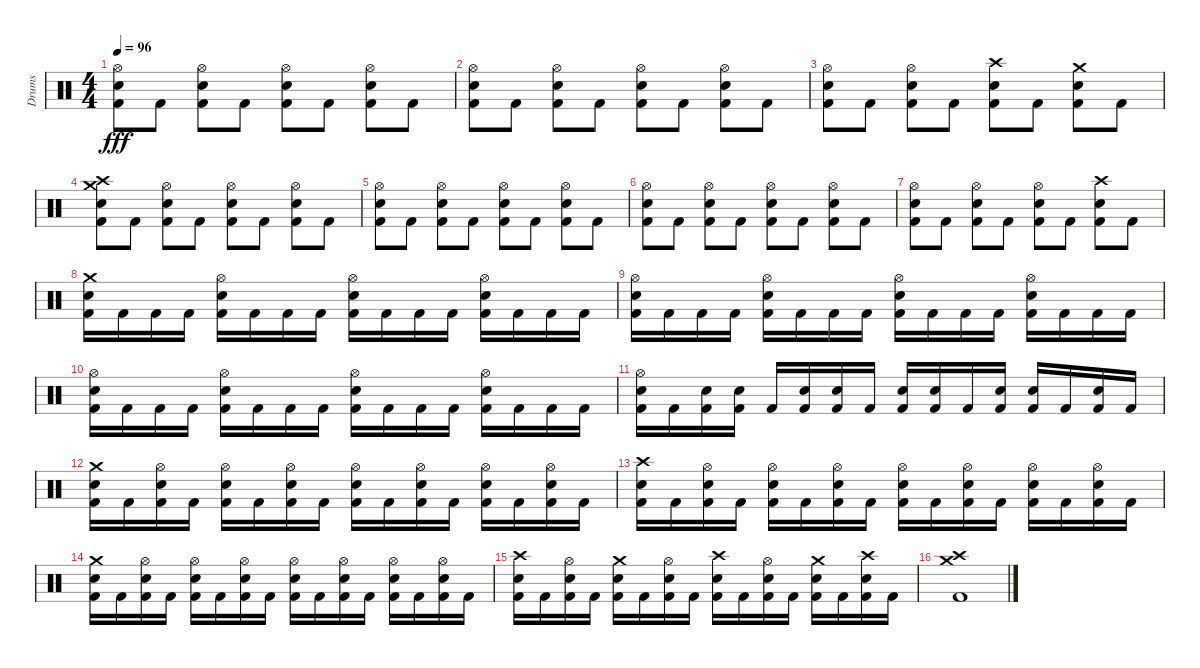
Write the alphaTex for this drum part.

\track ("Drums" "Drums") {instrument percussion}
\staff {score}
\articulation defaults
\ts (4 4)
\tempo 96
\clef neutral
\ks c
("Hi-Hat (open)" "Electric Snare (hit)" "Kick (hit) 2").8{dy fff} "Kick (hit) 2".8 ("Hi-Hat (open)" "Electric Snare (hit)" "Kick (hit) 2").8 "Kick (hit) 2".8 ("Hi-Hat (open)" "Electric Snare (hit)" "Kick (hit) 2").8 "Kick (hit) 2".8 ("Hi-Hat (open)" "Electric Snare (hit)" "Kick (hit) 2").8 "Kick (hit) 2".8 |
("Hi-Hat (open)" "Electric Snare (hit)" "Kick (hit) 2").8 "Kick (hit) 2".8 ("Hi-Hat (open)" "Electric Snare (hit)" "Kick (hit) 2").8 "Kick (hit) 2".8 ("Hi-Hat (open)" "Electric Snare (hit)" "Kick (hit) 2").8 "Kick (hit) 2".8 ("Hi-Hat (open)" "Electric Snare (hit)" "Kick (hit) 2").8 "Kick (hit) 2".8 |
("Hi-Hat (open)" "Electric Snare (hit)" "Kick (hit) 2").8 "Kick (hit) 2".8 ("Hi-Hat (open)" "Electric Snare (hit)" "Kick (hit) 2").8 "Kick (hit) 2".8 ("Crash high (hit)" "Electric Snare (hit)" "Kick (hit) 2").8 "Kick (hit) 2".8 ("Crash medium (hit)" "Electric Snare (hit)" "Kick (hit) 2").8 "Kick (hit) 2".8 |
("Crash high (hit)" "Crash medium (hit)" "Electric Snare (hit)" "Kick (hit) 2").8 "Kick (hit) 2".8 ("Hi-Hat (open)" "Electric Snare (hit)" "Kick (hit) 2").8 "Kick (hit) 2".8 ("Hi-Hat (open)" "Electric Snare (hit)" "Kick (hit) 2").8 "Kick (hit) 2".8 ("Hi-Hat (open)" "Electric Snare (hit)" "Kick (hit) 2").8 "Kick (hit) 2".8 |
("Hi-Hat (open)" "Electric Snare (hit)" "Kick (hit) 2").8 "Kick (hit) 2".8 ("Hi-Hat (open)" "Electric Snare (hit)" "Kick (hit) 2").8 "Kick (hit) 2".8 ("Hi-Hat (open)" "Electric Snare (hit)" "Kick (hit) 2").8 "Kick (hit) 2".8 ("Hi-Hat (open)" "Electric Snare (hit)" "Kick (hit) 2").8 "Kick (hit) 2".8 |
("Hi-Hat (open)" "Electric Snare (hit)" "Kick (hit) 2").8 "Kick (hit) 2".8 ("Hi-Hat (open)" "Electric Snare (hit)" "Kick (hit) 2").8 "Kick (hit) 2".8 ("Hi-Hat (open)" "Electric Snare (hit)" "Kick (hit) 2").8 "Kick (hit) 2".8 ("Hi-Hat (open)" "Electric Snare (hit)" "Kick (hit) 2").8 "Kick (hit) 2".8 |
("Hi-Hat (open)" "Electric Snare (hit)" "Kick (hit) 2").8 "Kick (hit) 2".8 ("Hi-Hat (open)" "Electric Snare (hit)" "Kick (hit) 2").8 "Kick (hit) 2".8 ("Hi-Hat (open)" "Electric Snare (hit)" "Kick (hit) 2").8 "Kick (hit) 2".8 ("Crash high (hit)" "Electric Snare (hit)" "Kick (hit) 2").8 "Kick (hit) 2".8 |
("Crash medium (hit)" "Electric Snare (hit)" "Kick (hit) 2").16 "Kick (hit) 2".16 "Kick (hit) 2".16 "Kick (hit) 2".16 ("Hi-Hat (open)" "Electric Snare (hit)" "Kick (hit) 2").16 "Kick (hit) 2".16 "Kick (hit) 2".16 "Kick (hit) 2".16 ("Hi-Hat (open)" "Electric Snare (hit)" "Kick (hit) 2").16 "Kick (hit) 2".16 "Kick (hit) 2".16 "Kick (hit) 2".16 ("Hi-Hat (open)" "Electric Snare (hit)" "Kick (hit) 2").16 "Kick (hit) 2".16 "Kick (hit) 2".16 "Kick (hit) 2".16 |
("Hi-Hat (open)" "Electric Snare (hit)" "Kick (hit) 2").16 "Kick (hit) 2".16 "Kick (hit) 2".16 "Kick (hit) 2".16 ("Hi-Hat (open)" "Electric Snare (hit)" "Kick (hit) 2").16 "Kick (hit) 2".16 "Kick (hit) 2".16 "Kick (hit) 2".16 ("Hi-Hat (open)" "Electric Snare (hit)" "Kick (hit) 2").16 "Kick (hit) 2".16 "Kick (hit) 2".16 "Kick (hit) 2".16 ("Hi-Hat (open)" "Electric Snare (hit)" "Kick (hit) 2").16 "Kick (hit) 2".16 "Kick (hit) 2".16 "Kick (hit) 2".16 |
("Hi-Hat (open)" "Electric Snare (hit)" "Kick (hit) 2").16 "Kick (hit) 2".16 "Kick (hit) 2".16 "Kick (hit) 2".16 ("Hi-Hat (open)" "Electric Snare (hit)" "Kick (hit) 2").16 "Kick (hit) 2".16 "Kick (hit) 2".16 "Kick (hit) 2".16 ("Hi-Hat (open)" "Electric Snare (hit)" "Kick (hit) 2").16 "Kick (hit) 2".16 "Kick (hit) 2".16 "Kick (hit) 2".16 ("Hi-Hat (open)" "Electric Snare (hit)" "Kick (hit) 2").16 "Kick (hit) 2".16 "Kick (hit) 2".16 "Kick (hit) 2".16 |
("Hi-Hat (open)" "Electric Snare (hit)" "Kick (hit) 2").16 "Kick (hit) 2".16 ("Electric Snare (hit)" "Kick (hit) 2").16 ("Electric Snare (hit)" "Kick (hit) 2").16 "Kick (hit) 2".16 ("Electric Snare (hit)" "Kick (hit) 2").16 ("Electric Snare (hit)" "Kick (hit) 2").16 "Kick (hit) 2".16 ("Electric Snare (hit)" "Kick (hit) 2").16 ("Electric Snare (hit)" "Kick (hit) 2").16 "Kick (hit) 2".16 ("Electric Snare (hit)" "Kick (hit) 2").16 ("Electric Snare (hit)" "Kick (hit) 2").16 "Kick (hit) 2".16 ("Electric Snare (hit)" "Kick (hit) 2").16 "Kick (hit) 2".16 |
("Crash medium (hit)" "Electric Snare (hit)" "Kick (hit) 2").16 "Kick (hit) 2".16 ("Hi-Hat (open)" "Electric Snare (hit)" "Kick (hit) 2").16 "Kick (hit) 2".16 ("Hi-Hat (open)" "Electric Snare (hit)" "Kick (hit) 2").16 "Kick (hit) 2".16 ("Hi-Hat (open)" "Electric Snare (hit)" "Kick (hit) 2").16 "Kick (hit) 2".16 ("Hi-Hat (open)" "Electric Snare (hit)" "Kick (hit) 2").16 "Kick (hit) 2".16 ("Hi-Hat (open)" "Electric Snare (hit)" "Kick (hit) 2").16 "Kick (hit) 2".16 ("Hi-Hat (open)" "Electric Snare (hit)" "Kick (hit) 2").16 "Kick (hit) 2".16 ("Hi-Hat (open)" "Electric Snare (hit)" "Kick (hit) 2").16 "Kick (hit) 2".16 |
("Crash high (hit)" "Electric Snare (hit)" "Kick (hit) 2").16 "Kick (hit) 2".16 ("Hi-Hat (open)" "Electric Snare (hit)" "Kick (hit) 2").16 "Kick (hit) 2".16 ("Hi-Hat (open)" "Electric Snare (hit)" "Kick (hit) 2").16 "Kick (hit) 2".16 ("Hi-Hat (open)" "Electric Snare (hit)" "Kick (hit) 2").16 "Kick (hit) 2".16 ("Hi-Hat (open)" "Electric Snare (hit)" "Kick (hit) 2").16 "Kick (hit) 2".16 ("Hi-Hat (open)" "Electric Snare (hit)" "Kick (hit) 2").16 "Kick (hit) 2".16 ("Hi-Hat (open)" "Electric Snare (hit)" "Kick (hit) 2").16 "Kick (hit) 2".16 ("Hi-Hat (open)" "Electric Snare (hit)" "Kick (hit) 2").16 "Kick (hit) 2".16 |
("Crash medium (hit)" "Electric Snare (hit)" "Kick (hit) 2").16 "Kick (hit) 2".16 ("Hi-Hat (open)" "Electric Snare (hit)" "Kick (hit) 2").16 "Kick (hit) 2".16 ("Hi-Hat (open)" "Electric Snare (hit)" "Kick (hit) 2").16 "Kick (hit) 2".16 ("Hi-Hat (open)" "Electric Snare (hit)" "Kick (hit) 2").16 "Kick (hit) 2".16 ("Hi-Hat (open)" "Electric Snare (hit)" "Kick (hit) 2").16 "Kick (hit) 2".16 ("Hi-Hat (open)" "Electric Snare (hit)" "Kick (hit) 2").16 "Kick (hit) 2".16 ("Hi-Hat (open)" "Electric Snare (hit)" "Kick (hit) 2").16 "Kick (hit) 2".16 ("Hi-Hat (open)" "Electric Snare (hit)" "Kick (hit) 2").16 "Kick (hit) 2".16 |
("Crash high (hit)" "Electric Snare (hit)" "Kick (hit) 2").16 "Kick (hit) 2".16 ("Hi-Hat (open)" "Electric Snare (hit)" "Kick (hit) 2").16 "Kick (hit) 2".16 ("Crash medium (hit)" "Electric Snare (hit)" "Kick (hit) 2").16 "Kick (hit) 2".16 ("Hi-Hat (open)" "Electric Snare (hit)" "Kick (hit) 2").16 "Kick (hit) 2".16 ("Crash high (hit)" "Electric Snare (hit)" "Kick (hit) 2").16 "Kick (hit) 2".16 ("Hi-Hat (open)" "Electric Snare (hit)" "Kick (hit) 2").16 "Kick (hit) 2".16 ("Crash medium (hit)" "Electric Snare (hit)" "Kick (hit) 2").16 "Kick (hit) 2".16 ("Crash high (hit)" "Electric Snare (hit)" "Kick (hit) 2").16 "Kick (hit) 2".16 |
("Crash high (hit)" "Crash medium (hit)" "Kick (hit) 2").1
